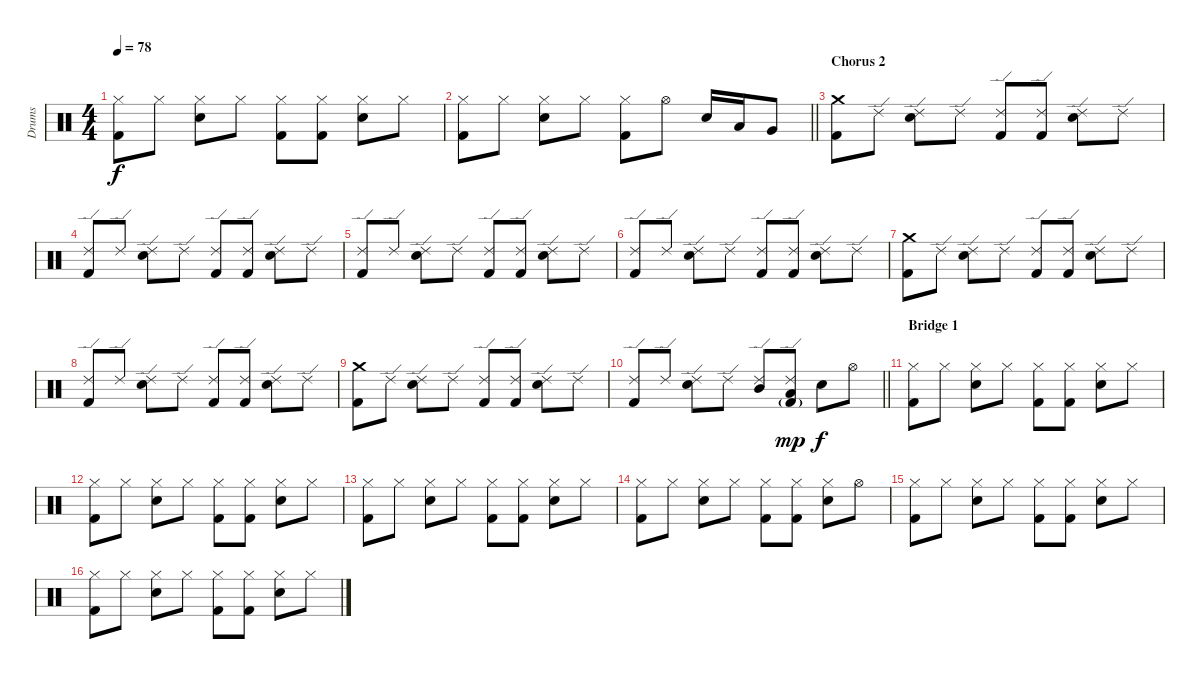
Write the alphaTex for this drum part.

\track ("Drums" "Drums") {instrument percussion}
\staff {score}
\articulation defaults
\ts (4 4)
\tempo 78
\clef neutral
\ks c
("Hi-Hat (closed)" "Kick (hit) 2").8{dy f} "Hi-Hat (closed)".8 ("Hi-Hat (closed)" "Electric Snare (hit)").8 "Hi-Hat (closed)".8 ("Hi-Hat (closed)" "Kick (hit) 2").8 ("Hi-Hat (closed)" "Kick (hit) 2").8 ("Hi-Hat (closed)" "Electric Snare (hit)").8 "Hi-Hat (closed)".8 |
\barLineRight lightlight
("Hi-Hat (closed)" "Kick (hit) 2").8 "Hi-Hat (closed)".8 ("Hi-Hat (closed)" "Electric Snare (hit)").8 "Hi-Hat (closed)".8 ("Hi-Hat (closed)" "Kick (hit) 2").8 "Hi-Hat (open)".8 "Electric Snare (hit)".16 "Low Tom (hit)".16 "Very Low Tom (hit)".8 |
\section ("" "Chorus 2")
("Crash medium (hit)" "Kick (hit) 2").8 "Ride (edge) 2".8 ("Ride (edge) 2" "Electric Snare (hit)").8 "Ride (edge) 2".8 ("Ride (edge) 2" "Kick (hit) 2").8 ("Ride (edge) 2" "Kick (hit) 2").8 ("Ride (edge) 2" "Electric Snare (hit)").8 "Ride (edge) 2".8 |
("Ride (edge) 2" "Kick (hit) 2").8 "Ride (edge) 2".8 ("Ride (edge) 2" "Electric Snare (hit)").8 "Ride (edge) 2".8 ("Ride (edge) 2" "Kick (hit) 2").8 ("Ride (edge) 2" "Kick (hit) 2").8 ("Ride (edge) 2" "Electric Snare (hit)").8 "Ride (edge) 2".8 |
("Ride (edge) 2" "Kick (hit) 2").8 "Ride (edge) 2".8 ("Ride (edge) 2" "Electric Snare (hit)").8 "Ride (edge) 2".8 ("Ride (edge) 2" "Kick (hit) 2").8 ("Ride (edge) 2" "Kick (hit) 2").8 ("Ride (edge) 2" "Electric Snare (hit)").8 "Ride (edge) 2".8 |
("Ride (edge) 2" "Kick (hit) 2").8 "Ride (edge) 2".8 ("Ride (edge) 2" "Electric Snare (hit)").8 "Ride (edge) 2".8 ("Ride (edge) 2" "Kick (hit) 2").8 ("Ride (edge) 2" "Kick (hit) 2").8 ("Ride (edge) 2" "Electric Snare (hit)").8 "Ride (edge) 2".8 |
("Crash medium (hit)" "Kick (hit) 2").8 "Ride (edge) 2".8 ("Ride (edge) 2" "Electric Snare (hit)").8 "Ride (edge) 2".8 ("Ride (edge) 2" "Kick (hit) 2").8 ("Ride (edge) 2" "Kick (hit) 2").8 ("Ride (edge) 2" "Electric Snare (hit)").8 "Ride (edge) 2".8 |
("Ride (edge) 2" "Kick (hit) 2").8 "Ride (edge) 2".8 ("Ride (edge) 2" "Electric Snare (hit)").8 "Ride (edge) 2".8 ("Ride (edge) 2" "Kick (hit) 2").8 ("Ride (edge) 2" "Kick (hit) 2").8 ("Ride (edge) 2" "Electric Snare (hit)").8 "Ride (edge) 2".8 |
("Crash medium (hit)" "Kick (hit) 2").8 "Ride (edge) 2".8 ("Ride (edge) 2" "Electric Snare (hit)").8 "Ride (edge) 2".8 ("Ride (edge) 2" "Kick (hit) 2").8 ("Ride (edge) 2" "Kick (hit) 2").8 ("Ride (edge) 2" "Electric Snare (hit)").8 "Ride (edge) 2".8 |
\barLineRight lightlight
("Ride (edge) 2" "Kick (hit) 2").8 "Ride (edge) 2".8 ("Ride (edge) 2" "Electric Snare (hit)").8 "Ride (edge) 2".8 ("Ride (edge) 2" "Mid Tom (hit)").8 ("Ride (edge) 2" "Low Tom (hit)" "Kick (hit) 2"{g}).8{dy mp} "Electric Snare (hit)".8{dy f} "Hi-Hat (open)".8 |
\section ("" "Bridge 1")
("Hi-Hat (closed)" "Kick (hit) 2").8 "Hi-Hat (closed)".8 ("Hi-Hat (closed)" "Electric Snare (hit)").8 "Hi-Hat (closed)".8 ("Hi-Hat (closed)" "Kick (hit) 2").8 ("Hi-Hat (closed)" "Kick (hit) 2").8 ("Hi-Hat (closed)" "Electric Snare (hit)").8 "Hi-Hat (closed)".8 |
("Hi-Hat (closed)" "Kick (hit) 2").8 "Hi-Hat (closed)".8 ("Hi-Hat (closed)" "Electric Snare (hit)").8 "Hi-Hat (closed)".8 ("Hi-Hat (closed)" "Kick (hit) 2").8 ("Hi-Hat (closed)" "Kick (hit) 2").8 ("Hi-Hat (closed)" "Electric Snare (hit)").8 "Hi-Hat (closed)".8 |
("Hi-Hat (closed)" "Kick (hit) 2").8 "Hi-Hat (closed)".8 ("Hi-Hat (closed)" "Electric Snare (hit)").8 "Hi-Hat (closed)".8 ("Hi-Hat (closed)" "Kick (hit) 2").8 ("Hi-Hat (closed)" "Kick (hit) 2").8 ("Hi-Hat (closed)" "Electric Snare (hit)").8 "Hi-Hat (closed)".8 |
("Hi-Hat (closed)" "Kick (hit) 2").8 "Hi-Hat (closed)".8 ("Hi-Hat (closed)" "Electric Snare (hit)").8 "Hi-Hat (closed)".8 ("Hi-Hat (closed)" "Kick (hit) 2").8 ("Hi-Hat (closed)" "Kick (hit) 2").8 ("Hi-Hat (closed)" "Electric Snare (hit)").8 "Hi-Hat (open)".8 |
("Hi-Hat (closed)" "Kick (hit) 2").8 "Hi-Hat (closed)".8 ("Hi-Hat (closed)" "Electric Snare (hit)").8 "Hi-Hat (closed)".8 ("Hi-Hat (closed)" "Kick (hit) 2").8 ("Hi-Hat (closed)" "Kick (hit) 2").8 ("Hi-Hat (closed)" "Electric Snare (hit)").8 "Hi-Hat (closed)".8 |
("Hi-Hat (closed)" "Kick (hit) 2").8 "Hi-Hat (closed)".8 ("Hi-Hat (closed)" "Electric Snare (hit)").8 "Hi-Hat (closed)".8 ("Hi-Hat (closed)" "Kick (hit) 2").8 ("Hi-Hat (closed)" "Kick (hit) 2").8 ("Hi-Hat (closed)" "Electric Snare (hit)").8 "Hi-Hat (closed)".8
